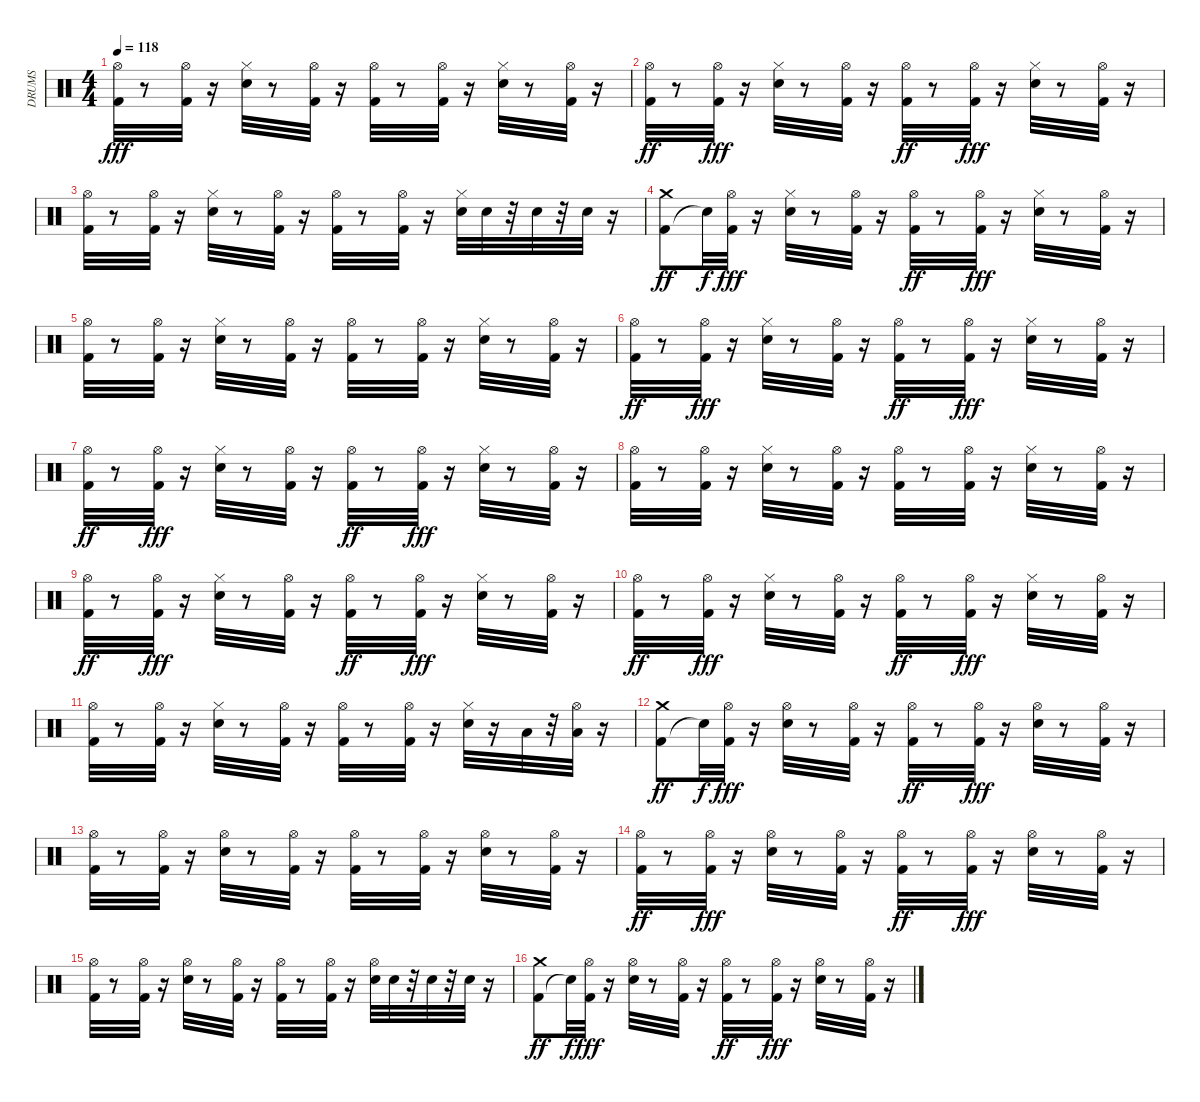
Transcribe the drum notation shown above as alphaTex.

\track ("DRUMS" "DRUMS") {instrument percussion}
\staff {score}
\articulation defaults
\ts (4 4)
\tempo 118
\clef neutral
\ks c
("Hi-Hat (open)" "Kick (hit) 2").32{dy fff} r.8 ("Hi-Hat (open)" "Kick (hit) 2").32 r.16 ("Snare (hit) 2" "Hi-Hat (closed)").32 r.8 ("Hi-Hat (open)" "Kick (hit) 2").32 r.16 ("Hi-Hat (open)" "Kick (hit) 2").32 r.8 ("Hi-Hat (open)" "Kick (hit) 2").32 r.16 ("Hi-Hat (closed)" "Snare (hit) 2").32 r.8 ("Hi-Hat (open)" "Kick (hit) 2").32 r.16 |
("Kick (hit) 2" "Hi-Hat (open)").32{dy ff} r.8 ("Hi-Hat (open)" "Kick (hit) 2").32{dy fff} r.16 ("Hi-Hat (closed)" "Snare (hit) 2").32 r.8 ("Kick (hit) 2" "Hi-Hat (open)").32 r.16 ("Kick (hit) 2" "Hi-Hat (open)").32{dy ff} r.8 ("Hi-Hat (open)" "Kick (hit) 2").32{dy fff} r.16 ("Snare (hit) 2" "Hi-Hat (closed)").32 r.8 ("Hi-Hat (open)" "Kick (hit) 2").32 r.16 |
("Hi-Hat (open)" "Kick (hit) 2").32 r.8 ("Hi-Hat (open)" "Kick (hit) 2").32 r.16 ("Hi-Hat (closed)" "Snare (hit) 2").32 r.8 ("Hi-Hat (open)" "Kick (hit) 2").32 r.16 ("Hi-Hat (open)" "Kick (hit) 2").32 r.8 ("Hi-Hat (open)" "Kick (hit) 2").32 r.16 ("Hi-Hat (closed)" "Snare (hit) 2").32 "Snare (hit) 2".32 r.32 "Snare (hit) 2".32 r.32 "Snare (hit) 2".32 r.16 |
("Kick (hit) 2" "Crash medium (hit)").8{dy ff} "Snare (hit)"{t}.32{dy f} ("Kick (hit) 2" "Hi-Hat (open)").32{dy fff} r.16 ("Hi-Hat (closed)" "Snare (hit) 2").32 r.8 ("Kick (hit) 2" "Hi-Hat (open)").32 r.16 ("Kick (hit) 2" "Hi-Hat (open)").32{dy ff} r.8 ("Hi-Hat (open)" "Kick (hit) 2").32{dy fff} r.16 ("Hi-Hat (closed)" "Snare (hit) 2").32 r.8 ("Hi-Hat (open)" "Kick (hit) 2").32 r.16 |
("Hi-Hat (open)" "Kick (hit) 2").32 r.8 ("Hi-Hat (open)" "Kick (hit) 2").32 r.16 ("Snare (hit) 2" "Hi-Hat (closed)").32 r.8 ("Hi-Hat (open)" "Kick (hit) 2").32 r.16 ("Hi-Hat (open)" "Kick (hit) 2").32 r.8 ("Hi-Hat (open)" "Kick (hit) 2").32 r.16 ("Hi-Hat (closed)" "Snare (hit) 2").32 r.8 ("Hi-Hat (open)" "Kick (hit) 2").32 r.16 |
("Kick (hit) 2" "Hi-Hat (open)").32{dy ff} r.8 ("Hi-Hat (open)" "Kick (hit) 2").32{dy fff} r.16 ("Hi-Hat (closed)" "Snare (hit) 2").32 r.8 ("Kick (hit) 2" "Hi-Hat (open)").32 r.16 ("Kick (hit) 2" "Hi-Hat (open)").32{dy ff} r.8 ("Hi-Hat (open)" "Kick (hit) 2").32{dy fff} r.16 ("Snare (hit) 2" "Hi-Hat (closed)").32 r.8 ("Hi-Hat (open)" "Kick (hit) 2").32 r.16 |
("Kick (hit) 2" "Hi-Hat (open)").32{dy ff} r.8 ("Kick (hit) 2" "Hi-Hat (open)").32{dy fff} r.16 ("Hi-Hat (closed)" "Snare (hit) 2").32 r.8 ("Kick (hit) 2" "Hi-Hat (open)").32 r.16 ("Kick (hit) 2" "Hi-Hat (open)").32{dy ff} r.8 ("Hi-Hat (open)" "Kick (hit) 2").32{dy fff} r.16 ("Hi-Hat (closed)" "Snare (hit) 2").32 r.8 ("Hi-Hat (open)" "Kick (hit) 2").32 r.16 |
("Hi-Hat (open)" "Kick (hit) 2").32 r.8 ("Hi-Hat (open)" "Kick (hit) 2").32 r.16 ("Snare (hit) 2" "Hi-Hat (closed)").32 r.8 ("Hi-Hat (open)" "Kick (hit) 2").32 r.16 ("Hi-Hat (open)" "Kick (hit) 2").32 r.8 ("Hi-Hat (open)" "Kick (hit) 2").32 r.16 ("Hi-Hat (closed)" "Snare (hit) 2").32 r.8 ("Hi-Hat (open)" "Kick (hit) 2").32 r.16 |
("Kick (hit) 2" "Hi-Hat (open)").32{dy ff} r.8 ("Hi-Hat (open)" "Kick (hit) 2").32{dy fff} r.16 ("Hi-Hat (closed)" "Snare (hit) 2").32 r.8 ("Kick (hit) 2" "Hi-Hat (open)").32 r.16 ("Kick (hit) 2" "Hi-Hat (open)").32{dy ff} r.8 ("Hi-Hat (open)" "Kick (hit) 2").32{dy fff} r.16 ("Snare (hit) 2" "Hi-Hat (closed)").32 r.8 ("Hi-Hat (open)" "Kick (hit) 2").32 r.16 |
("Kick (hit) 2" "Hi-Hat (open)").32{dy ff} r.8 ("Kick (hit) 2" "Hi-Hat (open)").32{dy fff} r.16 ("Hi-Hat (closed)" "Snare (hit) 2").32 r.8 ("Kick (hit) 2" "Hi-Hat (open)").32 r.16 ("Kick (hit) 2" "Hi-Hat (open)").32{dy ff} r.8 ("Hi-Hat (open)" "Kick (hit) 2").32{dy fff} r.16 ("Hi-Hat (closed)" "Snare (hit) 2").32 r.8 ("Hi-Hat (open)" "Kick (hit) 2").32 r.16 |
("Hi-Hat (open)" "Kick (hit) 2").32 r.8 ("Hi-Hat (open)" "Kick (hit) 2").32 r.16 ("Snare (hit) 2" "Hi-Hat (closed)").32 r.8 ("Hi-Hat (open)" "Kick (hit) 2").32 r.16 ("Hi-Hat (open)" "Kick (hit) 2").32 r.8 ("Hi-Hat (open)" "Kick (hit) 2").32 r.16 ("Hi-Hat (closed)" "Snare (hit) 2").32 r.16 "Low Tom (hit)".32 r.32 ("Hi-Hat (open)" "Low Floor Tom (hit)").32 r.16 |
("Kick (hit) 2" "Crash medium (hit)").8{dy ff} "Snare (hit)"{t}.32{dy f} ("Kick (hit) 2" "Hi-Hat (open)").32{dy fff} r.16 ("Hi-Hat (open)" "Snare (hit) 2").32 r.8 ("Kick (hit) 2" "Hi-Hat (open)").32 r.16 ("Kick (hit) 2" "Hi-Hat (open)").32{dy ff} r.8 ("Hi-Hat (open)" "Kick (hit) 2").32{dy fff} r.16 ("Hi-Hat (open)" "Snare (hit) 2").32 r.8 ("Hi-Hat (open)" "Kick (hit) 2").32 r.16 |
("Hi-Hat (open)" "Kick (hit) 2").32 r.8 ("Hi-Hat (open)" "Kick (hit) 2").32 r.16 ("Snare (hit) 2" "Hi-Hat (open)").32 r.8 ("Hi-Hat (open)" "Kick (hit) 2").32 r.16 ("Hi-Hat (open)" "Kick (hit) 2").32 r.8 ("Hi-Hat (open)" "Kick (hit) 2").32 r.16 ("Hi-Hat (open)" "Snare (hit) 2").32 r.8 ("Hi-Hat (open)" "Kick (hit) 2").32 r.16 |
("Kick (hit) 2" "Hi-Hat (open)").32{dy ff} r.8 ("Hi-Hat (open)" "Kick (hit) 2").32{dy fff} r.16 ("Hi-Hat (open)" "Snare (hit) 2").32 r.8 ("Kick (hit) 2" "Hi-Hat (open)").32 r.16 ("Kick (hit) 2" "Hi-Hat (open)").32{dy ff} r.8 ("Hi-Hat (open)" "Kick (hit) 2").32{dy fff} r.16 ("Snare (hit) 2" "Hi-Hat (open)").32 r.8 ("Hi-Hat (open)" "Kick (hit) 2").32 r.16 |
("Hi-Hat (open)" "Kick (hit) 2").32 r.8 ("Hi-Hat (open)" "Kick (hit) 2").32 r.16 ("Hi-Hat (open)" "Snare (hit) 2").32 r.8 ("Hi-Hat (open)" "Kick (hit) 2").32 r.16 ("Hi-Hat (open)" "Kick (hit) 2").32 r.8 ("Hi-Hat (open)" "Kick (hit) 2").32 r.16 ("Hi-Hat (open)" "Snare (hit) 2").32 "Snare (hit) 2".32 r.32 "Snare (hit) 2".32 r.32 "Snare (hit) 2".32 r.16 |
("Kick (hit) 2" "Crash medium (hit)").8{dy ff} "Snare (hit)"{t}.32{dy f} ("Kick (hit) 2" "Hi-Hat (open)").32{dy fff} r.16 ("Hi-Hat (open)" "Snare (hit) 2").32 r.8 ("Kick (hit) 2" "Hi-Hat (open)").32 r.16 ("Kick (hit) 2" "Hi-Hat (open)").32{dy ff} r.8 ("Hi-Hat (open)" "Kick (hit) 2").32{dy fff} r.16 ("Hi-Hat (open)" "Snare (hit) 2").32 r.8 ("Hi-Hat (open)" "Kick (hit) 2").32 r.16
